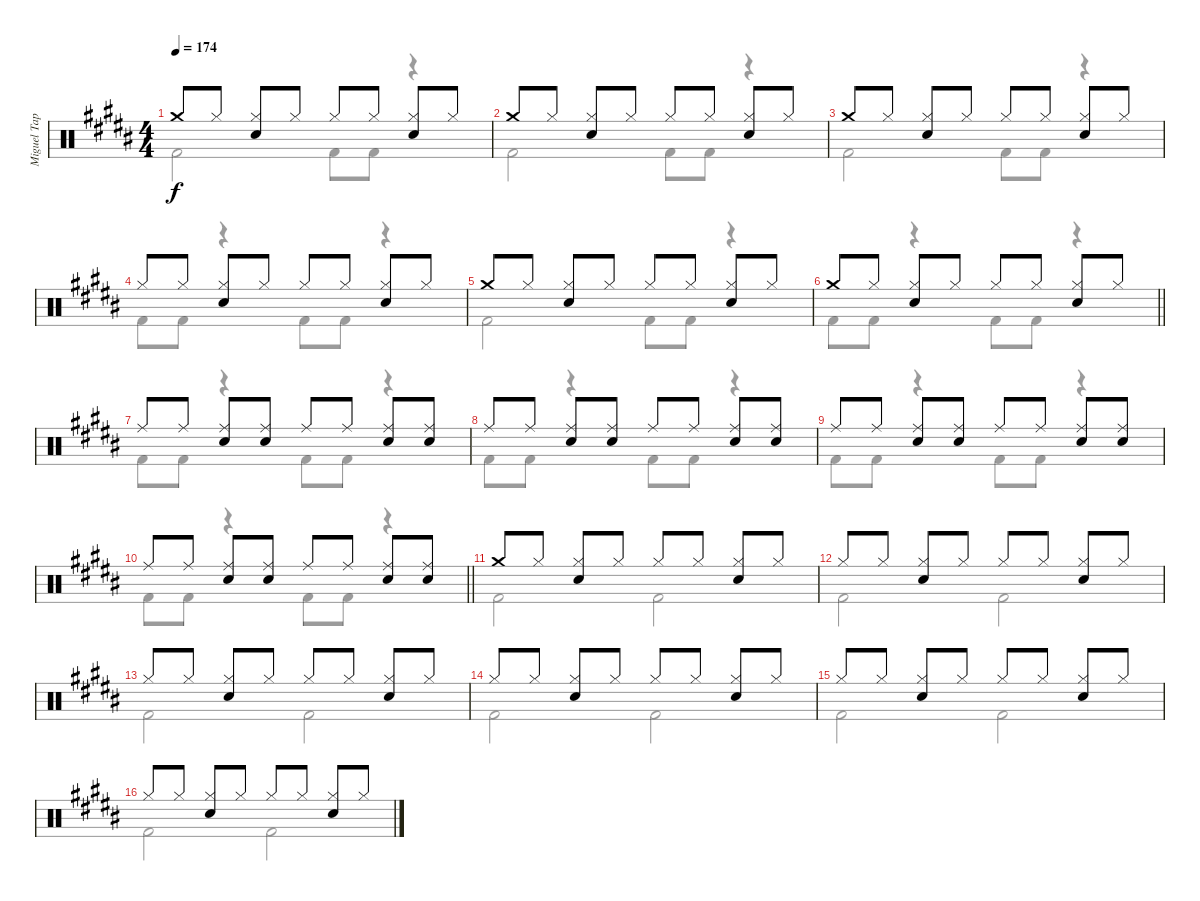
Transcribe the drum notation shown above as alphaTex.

\track ("Miguel Tapia" "Miguel Tap") {instrument percussion}
\staff {score}
\articulation defaults
\voice
\ts (4 4)
\tempo 174
\clef neutral
\ks b "Crash medium (hit)".8{dy f} "Hi-Hat (closed)".8
("Hi-Hat (closed)" "Snare (hit) 2").8 "Hi-Hat (closed)".8 "Hi-Hat (closed)".8 "Hi-Hat (closed)".8 ("Hi-Hat (closed)" "Snare (hit) 2").8 "Hi-Hat (closed)".8 |
"Crash medium (hit)".8 "Hi-Hat (closed)".8 ("Hi-Hat (closed)" "Snare (hit) 2").8 "Hi-Hat (closed)".8 "Hi-Hat (closed)".8 "Hi-Hat (closed)".8 ("Hi-Hat (closed)" "Snare (hit) 2").8 "Hi-Hat (closed)".8 |
"Crash medium (hit)".8 "Hi-Hat (closed)".8 ("Hi-Hat (closed)" "Snare (hit) 2").8 "Hi-Hat (closed)".8 "Hi-Hat (closed)".8 "Hi-Hat (closed)".8 ("Hi-Hat (closed)" "Snare (hit) 2").8 "Hi-Hat (closed)".8 |
"Hi-Hat (closed)".8 "Hi-Hat (closed)".8 ("Hi-Hat (closed)" "Snare (hit) 2").8 "Hi-Hat (closed)".8 "Hi-Hat (closed)".8 "Hi-Hat (closed)".8 ("Hi-Hat (closed)" "Snare (hit) 2").8 "Hi-Hat (closed)".8 |
"Crash medium (hit)".8 "Hi-Hat (closed)".8 ("Hi-Hat (closed)" "Snare (hit) 2").8 "Hi-Hat (closed)".8 "Hi-Hat (closed)".8 "Hi-Hat (closed)".8 ("Hi-Hat (closed)" "Snare (hit) 2").8 "Hi-Hat (closed)".8 |
\barLineRight lightlight "Crash medium (hit)".8 "Hi-Hat (closed)".8
("Hi-Hat (closed)" "Snare (hit) 2").8 "Hi-Hat (closed)".8 "Hi-Hat (closed)".8 "Hi-Hat (closed)".8 ("Hi-Hat (closed)" "Snare (hit) 2").8 "Hi-Hat (closed)".8 |
"Ride (middle)".8 "Ride (middle)".8 ("Ride (middle)" "Snare (hit) 2").8 ("Ride (middle)" "Snare (hit) 2").8 "Ride (middle)".8 "Ride (middle)".8 ("Ride (middle)" "Snare (hit) 2").8 ("Ride (middle)" "Snare (hit) 2").8 |
"Ride (middle)".8 "Ride (middle)".8 ("Ride (middle)" "Snare (hit) 2").8 ("Ride (middle)" "Snare (hit) 2").8 "Ride (middle)".8 "Ride (middle)".8 ("Ride (middle)" "Snare (hit) 2").8 ("Ride (middle)" "Snare (hit) 2").8 |
"Ride (middle)".8 "Ride (middle)".8 ("Ride (middle)" "Snare (hit) 2").8 ("Ride (middle)" "Snare (hit) 2").8 "Ride (middle)".8 "Ride (middle)".8 ("Ride (middle)" "Snare (hit) 2").8 ("Ride (middle)" "Snare (hit) 2").8 |
\barLineRight lightlight "Ride (middle)".8 "Ride (middle)".8
("Ride (middle)" "Snare (hit) 2").8 ("Ride (middle)" "Snare (hit) 2").8 "Ride (middle)".8 "Ride (middle)".8 ("Ride (middle)" "Snare (hit) 2").8 ("Ride (middle)" "Snare (hit) 2").8 |
"Crash medium (hit)".8 "Hi-Hat (closed)".8 ("Hi-Hat (closed)" "Snare (hit) 2").8 "Hi-Hat (closed)".8 "Hi-Hat (closed)".8 "Hi-Hat (closed)".8 ("Hi-Hat (closed)" "Snare (hit) 2").8 "Hi-Hat (closed)".8 |
"Hi-Hat (closed)".8 "Hi-Hat (closed)".8 ("Hi-Hat (closed)" "Snare (hit) 2").8 "Hi-Hat (closed)".8 "Hi-Hat (closed)".8 "Hi-Hat (closed)".8 ("Hi-Hat (closed)" "Snare (hit) 2").8 "Hi-Hat (closed)".8 |
"Hi-Hat (closed)".8 "Hi-Hat (closed)".8 ("Hi-Hat (closed)" "Snare (hit) 2").8 "Hi-Hat (closed)".8 "Hi-Hat (closed)".8 "Hi-Hat (closed)".8 ("Hi-Hat (closed)" "Snare (hit) 2").8 "Hi-Hat (closed)".8 |
"Hi-Hat (closed)".8 "Hi-Hat (closed)".8 ("Hi-Hat (closed)" "Snare (hit) 2").8 "Hi-Hat (closed)".8 "Hi-Hat (closed)".8 "Hi-Hat (closed)".8 ("Hi-Hat (closed)" "Snare (hit) 2").8 "Hi-Hat (closed)".8 |
"Hi-Hat (closed)".8 "Hi-Hat (closed)".8 ("Hi-Hat (closed)" "Snare (hit) 2").8 "Hi-Hat (closed)".8 "Hi-Hat (closed)".8 "Hi-Hat (closed)".8 ("Hi-Hat (closed)" "Snare (hit) 2").8 "Hi-Hat (closed)".8 |
"Hi-Hat (closed)".8 "Hi-Hat (closed)".8 ("Hi-Hat (closed)" "Snare (hit) 2").8 "Hi-Hat (closed)".8 "Hi-Hat (closed)".8 "Hi-Hat (closed)".8 ("Hi-Hat (closed)" "Snare (hit) 2").8 "Hi-Hat (closed)".8
\voice
\clef neutral
\ottava regular
\simile none
\ks b "Kick (hit) 2".2{dy f} "Kick (hit) 2".8 "Kick (hit) 2".8
r.4 |
"Kick (hit) 2".2 "Kick (hit) 2".8 "Kick (hit) 2".8 r.4 |
"Kick (hit) 2".2 "Kick (hit) 2".8 "Kick (hit) 2".8 r.4 |
"Kick (hit) 2".8 "Kick (hit) 2".8 r.4 "Kick (hit) 2".8 "Kick (hit) 2".8 r.4 |
"Kick (hit) 2".2 "Kick (hit) 2".8 "Kick (hit) 2".8 r.4 |
\barLineRight lightlight "Kick (hit) 2".8 "Kick (hit) 2".8
r.4 "Kick (hit) 2".8 "Kick (hit) 2".8 r.4 |
"Kick (hit) 2".8 "Kick (hit) 2".8 r.4 "Kick (hit) 2".8 "Kick (hit) 2".8 r.4 |
"Kick (hit) 2".8 "Kick (hit) 2".8 r.4 "Kick (hit) 2".8 "Kick (hit) 2".8 r.4 |
"Kick (hit) 2".8 "Kick (hit) 2".8 r.4 "Kick (hit) 2".8 "Kick (hit) 2".8 r.4 |
\barLineRight lightlight "Kick (hit) 2".8 "Kick (hit) 2".8
r.4 "Kick (hit) 2".8 "Kick (hit) 2".8 r.4 |
"Kick (hit) 2".2 "Kick (hit) 2".2 |
"Kick (hit) 2".2 "Kick (hit) 2".2 |
"Kick (hit) 2".2 "Kick (hit) 2".2 |
"Kick (hit) 2".2 "Kick (hit) 2".2 |
"Kick (hit) 2".2 "Kick (hit) 2".2 |
"Kick (hit) 2".2 "Kick (hit) 2".2
